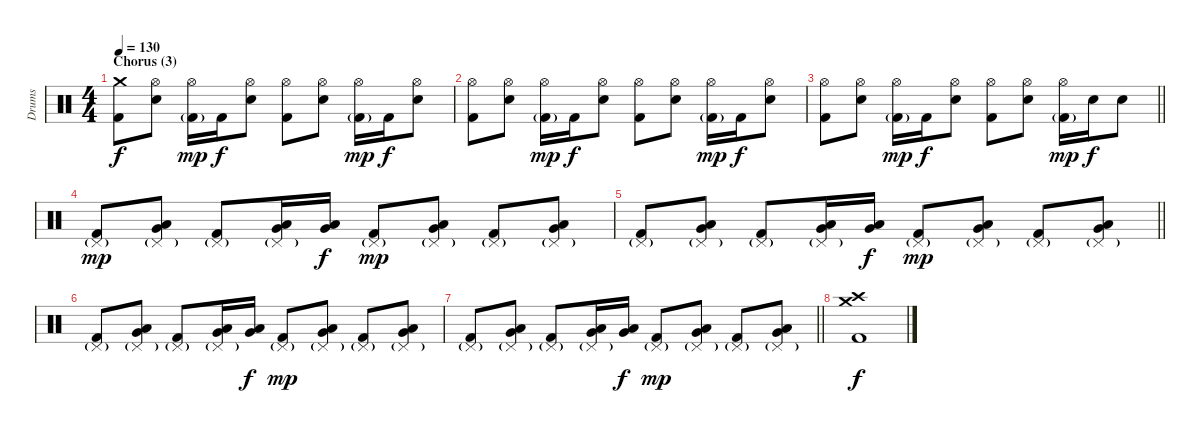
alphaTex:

\track ("Drums" "Drums") {instrument percussion}
\staff {score}
\articulation defaults
\ts (4 4)
\section ("" "Chorus (3)")
\tempo 130
\clef neutral
\ks c
("Crash medium (hit)" "Kick (hit) 2").8{dy f} ("Hi-Hat (open)" "Electric Snare (hit)").8 ("Hi-Hat (open)" "Kick (hit) 2"{g}).16{dy mp} "Kick (hit) 2".16{dy f} ("Hi-Hat (open)" "Electric Snare (hit)").8 ("Hi-Hat (open)" "Kick (hit) 2").8 ("Hi-Hat (open)" "Electric Snare (hit)").8 ("Hi-Hat (open)" "Kick (hit) 2"{g}).16{dy mp} "Kick (hit) 2".16{dy f} ("Hi-Hat (open)" "Electric Snare (hit)").8 |
("Hi-Hat (open)" "Kick (hit) 2").8 ("Hi-Hat (open)" "Electric Snare (hit)").8 ("Hi-Hat (open)" "Kick (hit) 2"{g}).16{dy mp} "Kick (hit) 2".16{dy f} ("Hi-Hat (open)" "Electric Snare (hit)").8 ("Hi-Hat (open)" "Kick (hit) 2").8 ("Hi-Hat (open)" "Electric Snare (hit)").8 ("Hi-Hat (open)" "Kick (hit) 2"{g}).16{dy mp} "Kick (hit) 2".16{dy f} ("Hi-Hat (open)" "Electric Snare (hit)").8 |
\barLineRight lightlight
("Hi-Hat (open)" "Kick (hit) 2").8 ("Hi-Hat (open)" "Electric Snare (hit)").8 ("Hi-Hat (open)" "Kick (hit) 2"{g}).16{dy mp} "Kick (hit) 2".16{dy f} ("Hi-Hat (open)" "Electric Snare (hit)").8 ("Hi-Hat (open)" "Kick (hit) 2").8 ("Hi-Hat (open)" "Electric Snare (hit)").8 ("Hi-Hat (open)" "Kick (hit) 2"{g}).16{dy mp} "Electric Snare (hit)".16{dy f} "Electric Snare (hit)".8 |
("Pedal Hi-Hat (hit)"{g} "Kick (hit) 2").8{dy mp} ("Pedal Hi-Hat (hit)"{g} "Low Tom (hit)" "Very Low Tom (hit)").8 ("Pedal Hi-Hat (hit)"{g} "Kick (hit) 2").8 ("Pedal Hi-Hat (hit)"{g} "Very Low Tom (hit)" "Low Floor Tom (hit)").16 ("Very Low Tom (hit)" "Low Floor Tom (hit)").16{dy f} ("Pedal Hi-Hat (hit)"{g} "Kick (hit) 2").8{dy mp} ("Pedal Hi-Hat (hit)"{g} "Very Low Tom (hit)" "Low Floor Tom (hit)").8 ("Pedal Hi-Hat (hit)"{g} "Kick (hit) 2").8 ("Pedal Hi-Hat (hit)"{g} "Very Low Tom (hit)" "Low Floor Tom (hit)").8 |
\barLineRight lightlight
("Pedal Hi-Hat (hit)"{g} "Kick (hit) 2").8 ("Pedal Hi-Hat (hit)"{g} "Low Tom (hit)" "Very Low Tom (hit)").8 ("Pedal Hi-Hat (hit)"{g} "Kick (hit) 2").8 ("Pedal Hi-Hat (hit)"{g} "Very Low Tom (hit)" "Low Floor Tom (hit)").16 ("Very Low Tom (hit)" "Low Floor Tom (hit)").16{dy f} ("Pedal Hi-Hat (hit)"{g} "Kick (hit) 2").8{dy mp} ("Pedal Hi-Hat (hit)"{g} "Very Low Tom (hit)" "Low Floor Tom (hit)").8 ("Pedal Hi-Hat (hit)"{g} "Kick (hit) 2").8 ("Pedal Hi-Hat (hit)"{g} "Very Low Tom (hit)" "Low Floor Tom (hit)").8 |
("Pedal Hi-Hat (hit)"{g} "Kick (hit) 2").8 ("Pedal Hi-Hat (hit)"{g} "Low Tom (hit)" "Very Low Tom (hit)").8 ("Pedal Hi-Hat (hit)"{g} "Kick (hit) 2").8 ("Pedal Hi-Hat (hit)"{g} "Very Low Tom (hit)" "Low Floor Tom (hit)").16 ("Very Low Tom (hit)" "Low Floor Tom (hit)").16{dy f} ("Pedal Hi-Hat (hit)"{g} "Kick (hit) 2").8{dy mp} ("Pedal Hi-Hat (hit)"{g} "Very Low Tom (hit)" "Low Floor Tom (hit)").8 ("Pedal Hi-Hat (hit)"{g} "Kick (hit) 2").8 ("Pedal Hi-Hat (hit)"{g} "Very Low Tom (hit)" "Low Floor Tom (hit)").8 |
\barLineRight lightlight
("Pedal Hi-Hat (hit)"{g} "Kick (hit) 2").8 ("Pedal Hi-Hat (hit)"{g} "Low Tom (hit)" "Very Low Tom (hit)").8 ("Pedal Hi-Hat (hit)"{g} "Kick (hit) 2").8 ("Pedal Hi-Hat (hit)"{g} "Very Low Tom (hit)" "Low Floor Tom (hit)").16 ("Very Low Tom (hit)" "Low Floor Tom (hit)").16{dy f} ("Pedal Hi-Hat (hit)"{g} "Kick (hit) 2").8{dy mp} ("Pedal Hi-Hat (hit)"{g} "Very Low Tom (hit)" "Low Floor Tom (hit)").8 ("Pedal Hi-Hat (hit)"{g} "Kick (hit) 2").8 ("Pedal Hi-Hat (hit)"{g} "Very Low Tom (hit)" "Low Floor Tom (hit)").8 |
("Crash high (hit)" "Crash medium (hit)" "Kick (hit) 2").1{dy f}
